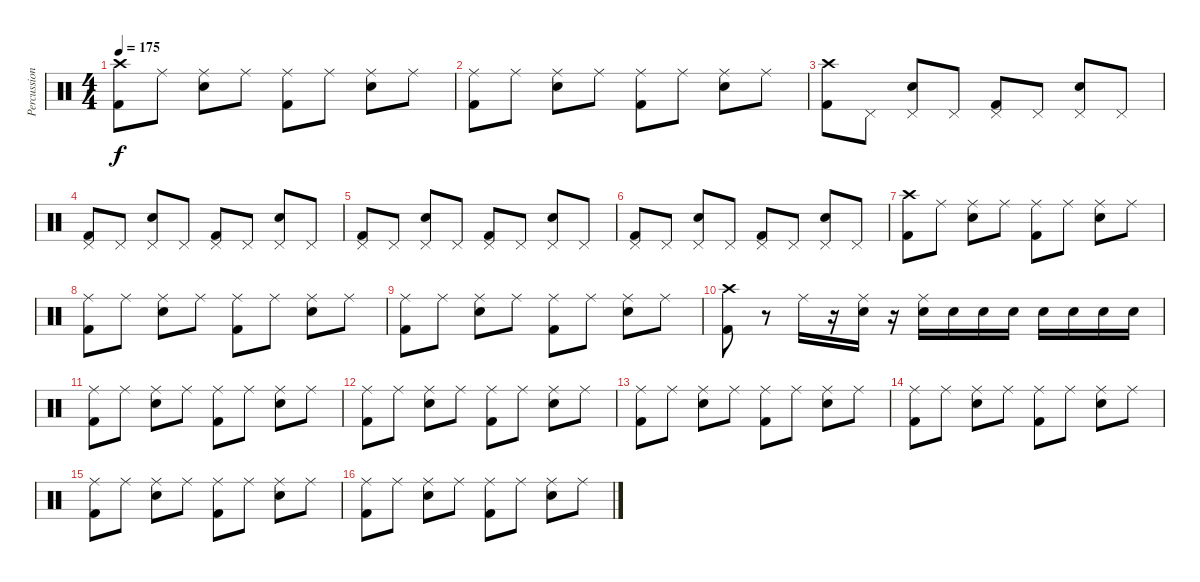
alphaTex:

\track ("Percussions" "Percussion") {instrument percussion}
\staff {score}
\articulation defaults
\ts (4 4)
\tempo 175
\clef neutral
\ks c
("Crash high (hit)" "Kick (hit) 2").8{dy f} "Ride (middle)".8 ("Ride (middle)" "Snare (hit) 2").8 "Ride (middle)".8 ("Ride (middle)" "Kick (hit) 2").8 "Ride (middle)".8 ("Ride (middle)" "Snare (hit) 2").8 "Ride (middle)".8 |
("Ride (middle)" "Kick (hit) 2").8 "Ride (middle)".8 ("Ride (middle)" "Snare (hit) 2").8 "Ride (middle)".8 ("Ride (middle)" "Kick (hit) 2").8 "Ride (middle)".8 ("Ride (middle)" "Snare (hit) 2").8 "Ride (middle)".8 |
("Crash high (hit)" "Kick (hit) 2").8 "Pedal Hi-Hat (hit)".8 ("Pedal Hi-Hat (hit)" "Snare (hit) 2").8 "Pedal Hi-Hat (hit)".8 ("Pedal Hi-Hat (hit)" "Kick (hit) 2").8 "Pedal Hi-Hat (hit)".8 ("Pedal Hi-Hat (hit)" "Snare (hit) 2").8 "Pedal Hi-Hat (hit)".8 |
("Pedal Hi-Hat (hit)" "Kick (hit) 2").8 "Pedal Hi-Hat (hit)".8 ("Pedal Hi-Hat (hit)" "Snare (hit) 2").8 "Pedal Hi-Hat (hit)".8 ("Pedal Hi-Hat (hit)" "Kick (hit) 2").8 "Pedal Hi-Hat (hit)".8 ("Pedal Hi-Hat (hit)" "Snare (hit) 2").8 "Pedal Hi-Hat (hit)".8 |
("Pedal Hi-Hat (hit)" "Kick (hit) 2").8 "Pedal Hi-Hat (hit)".8 ("Pedal Hi-Hat (hit)" "Snare (hit) 2").8 "Pedal Hi-Hat (hit)".8 ("Pedal Hi-Hat (hit)" "Kick (hit) 2").8 "Pedal Hi-Hat (hit)".8 ("Pedal Hi-Hat (hit)" "Snare (hit) 2").8 "Pedal Hi-Hat (hit)".8 |
("Pedal Hi-Hat (hit)" "Kick (hit) 2").8 "Pedal Hi-Hat (hit)".8 ("Pedal Hi-Hat (hit)" "Snare (hit) 2").8 "Pedal Hi-Hat (hit)".8 ("Pedal Hi-Hat (hit)" "Kick (hit) 2").8 "Pedal Hi-Hat (hit)".8 ("Pedal Hi-Hat (hit)" "Snare (hit) 2").8 "Pedal Hi-Hat (hit)".8 |
("Crash high (hit)" "Kick (hit) 2").8 "Ride (middle)".8 ("Ride (middle)" "Snare (hit) 2").8 "Ride (middle)".8 ("Ride (middle)" "Kick (hit) 2").8 "Ride (middle)".8 ("Ride (middle)" "Snare (hit) 2").8 "Ride (middle)".8 |
("Ride (middle)" "Kick (hit) 2").8 "Ride (middle)".8 ("Ride (middle)" "Snare (hit) 2").8 "Ride (middle)".8 ("Ride (middle)" "Kick (hit) 2").8 "Ride (middle)".8 ("Ride (middle)" "Snare (hit) 2").8 "Ride (middle)".8 |
("Ride (middle)" "Kick (hit) 2").8 "Ride (middle)".8 ("Ride (middle)" "Snare (hit) 2").8 "Ride (middle)".8 ("Ride (middle)" "Kick (hit) 2").8 "Ride (middle)".8 ("Ride (middle)" "Snare (hit) 2").8 "Ride (middle)".8 |
("Crash high (hit)" "Kick (hit) 2").8 r.8 "Ride (middle)".16 r.16 ("Ride (middle)" "Snare (hit) 2").16 r.16 ("Ride (middle)" "Snare (hit) 2").16 "Snare (hit) 2".16 "Snare (hit) 2".16 "Snare (hit) 2".16 "Snare (hit) 2".16 "Snare (hit) 2".16 "Snare (hit) 2".16 "Snare (hit) 2".16 |
("Ride (middle)" "Kick (hit) 2").8 "Ride (middle)".8 ("Ride (middle)" "Snare (hit) 2").8 "Ride (middle)".8 ("Ride (middle)" "Kick (hit) 2").8 "Ride (middle)".8 ("Ride (middle)" "Snare (hit) 2").8 "Ride (middle)".8 |
("Ride (middle)" "Kick (hit) 2").8 "Ride (middle)".8 ("Ride (middle)" "Snare (hit) 2").8 "Ride (middle)".8 ("Ride (middle)" "Kick (hit) 2").8 "Ride (middle)".8 ("Ride (middle)" "Snare (hit) 2").8 "Ride (middle)".8 |
("Ride (middle)" "Kick (hit) 2").8 "Ride (middle)".8 ("Ride (middle)" "Snare (hit) 2").8 "Ride (middle)".8 ("Ride (middle)" "Kick (hit) 2").8 "Ride (middle)".8 ("Ride (middle)" "Snare (hit) 2").8 "Ride (middle)".8 |
("Ride (middle)" "Kick (hit) 2").8 "Ride (middle)".8 ("Ride (middle)" "Snare (hit) 2").8 "Ride (middle)".8 ("Ride (middle)" "Kick (hit) 2").8 "Ride (middle)".8 ("Ride (middle)" "Snare (hit) 2").8 "Ride (middle)".8 |
("Ride (middle)" "Kick (hit) 2").8 "Ride (middle)".8 ("Ride (middle)" "Snare (hit) 2").8 "Ride (middle)".8 ("Ride (middle)" "Kick (hit) 2").8 "Ride (middle)".8 ("Ride (middle)" "Snare (hit) 2").8 "Ride (middle)".8 |
("Ride (middle)" "Kick (hit) 2").8 "Ride (middle)".8 ("Ride (middle)" "Snare (hit) 2").8 "Ride (middle)".8 ("Ride (middle)" "Kick (hit) 2").8 "Ride (middle)".8 ("Ride (middle)" "Snare (hit) 2").8 "Ride (middle)".8
